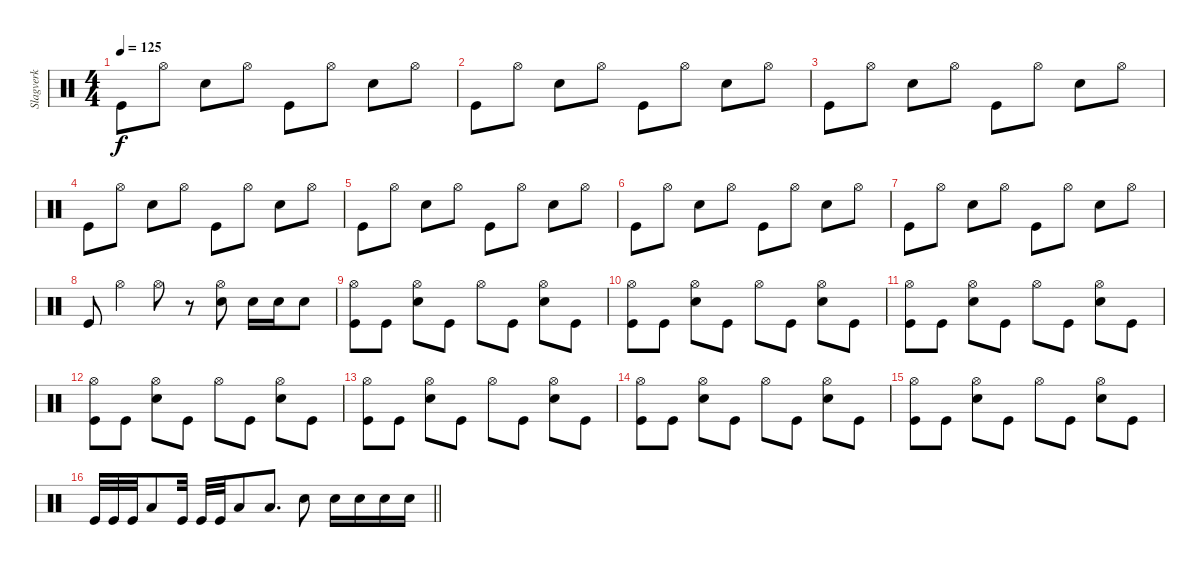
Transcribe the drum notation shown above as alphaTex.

\track ("Slagverk" "Slagverk") {instrument percussion}
\staff {score}
\articulation defaults
\ts (4 4)
\tempo 125
\clef neutral
\ks c "Kick (hit)".8{dy f} "Hi-Hat (open)".8 "Snare (hit) 2".8 "Hi-Hat (open)".8 "Kick (hit)".8 "Hi-Hat (open)".8 "Snare (hit) 2".8 "Hi-Hat (open)".8
|
"Kick (hit)".8 "Hi-Hat (open)".8 "Snare (hit) 2".8 "Hi-Hat (open)".8 "Kick (hit)".8 "Hi-Hat (open)".8 "Snare (hit) 2".8 "Hi-Hat (open)".8 |
"Kick (hit)".8 "Hi-Hat (open)".8 "Snare (hit) 2".8 "Hi-Hat (open)".8 "Kick (hit)".8 "Hi-Hat (open)".8 "Snare (hit) 2".8 "Hi-Hat (open)".8 |
"Kick (hit)".8 "Hi-Hat (open)".8 "Snare (hit) 2".8 "Hi-Hat (open)".8 "Kick (hit)".8 "Hi-Hat (open)".8 "Snare (hit) 2".8 "Hi-Hat (open)".8 |
"Kick (hit)".8 "Hi-Hat (open)".8 "Snare (hit) 2".8 "Hi-Hat (open)".8 "Kick (hit)".8 "Hi-Hat (open)".8 "Snare (hit) 2".8 "Hi-Hat (open)".8 |
"Kick (hit)".8 "Hi-Hat (open)".8 "Snare (hit) 2".8 "Hi-Hat (open)".8 "Kick (hit)".8 "Hi-Hat (open)".8 "Snare (hit) 2".8 "Hi-Hat (open)".8 |
"Kick (hit)".8 "Hi-Hat (open)".8 "Snare (hit) 2".8 "Hi-Hat (open)".8 "Kick (hit)".8 "Hi-Hat (open)".8 "Snare (hit) 2".8 "Hi-Hat (open)".8 |
"Kick (hit)".8 "Hi-Hat (open)".4 "Hi-Hat (open)".8 r.8 ("Hi-Hat (open)" "Snare (hit) 2").8 "Snare (hit) 2".16 "Snare (hit) 2".16 "Snare (hit) 2".8 |
("Hi-Hat (open)" "Kick (hit)").8 "Kick (hit)".8 ("Hi-Hat (open)" "Snare (hit) 2").8 "Kick (hit)".8 "Hi-Hat (open)".8 "Kick (hit)".8 ("Hi-Hat (open)" "Snare (hit) 2").8 "Kick (hit)".8 |
("Hi-Hat (open)" "Kick (hit)").8 "Kick (hit)".8 ("Hi-Hat (open)" "Snare (hit) 2").8 "Kick (hit)".8 "Hi-Hat (open)".8 "Kick (hit)".8 ("Hi-Hat (open)" "Snare (hit) 2").8 "Kick (hit)".8 |
("Hi-Hat (open)" "Kick (hit)").8 "Kick (hit)".8 ("Hi-Hat (open)" "Snare (hit) 2").8 "Kick (hit)".8 "Hi-Hat (open)".8 "Kick (hit)".8 ("Hi-Hat (open)" "Snare (hit) 2").8 "Kick (hit)".8 |
("Hi-Hat (open)" "Kick (hit)").8 "Kick (hit)".8 ("Hi-Hat (open)" "Snare (hit) 2").8 "Kick (hit)".8 "Hi-Hat (open)".8 "Kick (hit)".8 ("Hi-Hat (open)" "Snare (hit) 2").8 "Kick (hit)".8 |
("Hi-Hat (open)" "Kick (hit)").8 "Kick (hit)".8 ("Hi-Hat (open)" "Snare (hit) 2").8 "Kick (hit)".8 "Hi-Hat (open)".8 "Kick (hit)".8 ("Hi-Hat (open)" "Snare (hit) 2").8 "Kick (hit)".8 |
("Hi-Hat (open)" "Kick (hit)").8 "Kick (hit)".8 ("Hi-Hat (open)" "Snare (hit) 2").8 "Kick (hit)".8 "Hi-Hat (open)".8 "Kick (hit)".8 ("Hi-Hat (open)" "Snare (hit) 2").8 "Kick (hit)".8 |
("Hi-Hat (open)" "Kick (hit)").8 "Kick (hit)".8 ("Hi-Hat (open)" "Snare (hit) 2").8 "Kick (hit)".8 "Hi-Hat (open)".8 "Kick (hit)".8 ("Hi-Hat (open)" "Snare (hit) 2").8 "Kick (hit)".8 |
\barLineRight lightlight "Kick (hit)".32 "Kick (hit)".32 "Kick (hit)".32 "Low Tom (hit)".8 "Kick (hit)".32 "Kick (hit)".32 "Kick (hit)".32 "Low Tom (hit)".8 "Low Tom (hit)".8{d} "Snare (hit) 2".8 "Snare (hit) 2".16 "Snare (hit) 2".16 "Snare (hit) 2".16 "Snare (hit) 2".16
